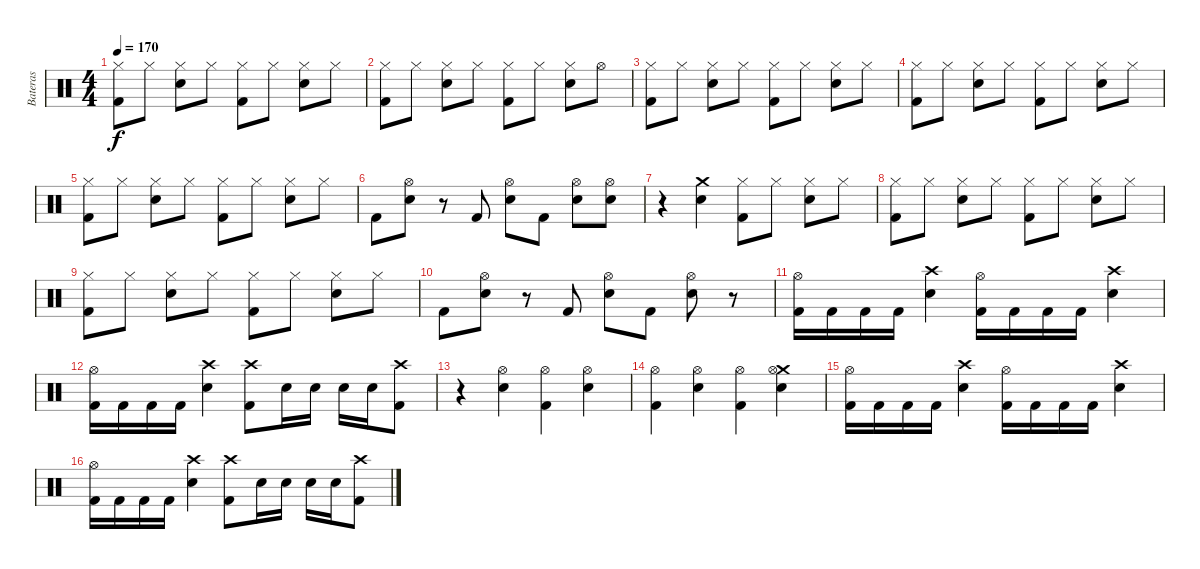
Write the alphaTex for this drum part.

\track ("Bateras" "Bateras") {instrument percussion}
\staff {score}
\articulation defaults
\ts (4 4)
\tempo 170
\clef neutral
\ks c
("Hi-Hat (closed)" "Kick (hit) 2").8{dy f} "Hi-Hat (closed)".8 ("Hi-Hat (closed)" "Snare (hit) 2").8 "Hi-Hat (closed)".8 ("Hi-Hat (closed)" "Kick (hit) 2").8 "Hi-Hat (closed)".8 ("Hi-Hat (closed)" "Snare (hit) 2").8 "Hi-Hat (closed)".8 |
("Hi-Hat (closed)" "Kick (hit) 2").8 "Hi-Hat (closed)".8 ("Hi-Hat (closed)" "Snare (hit) 2").8 "Hi-Hat (closed)".8 ("Hi-Hat (closed)" "Kick (hit) 2").8 "Hi-Hat (closed)".8 ("Hi-Hat (closed)" "Snare (hit) 2").8 "Hi-Hat (open)".8 |
("Hi-Hat (closed)" "Kick (hit) 2").8 "Hi-Hat (closed)".8 ("Hi-Hat (closed)" "Snare (hit) 2").8 "Hi-Hat (closed)".8 ("Hi-Hat (closed)" "Kick (hit) 2").8 "Hi-Hat (closed)".8 ("Hi-Hat (closed)" "Snare (hit) 2").8 "Hi-Hat (closed)".8 |
("Hi-Hat (closed)" "Kick (hit) 2").8 "Hi-Hat (closed)".8 ("Hi-Hat (closed)" "Snare (hit) 2").8 "Hi-Hat (closed)".8 ("Hi-Hat (closed)" "Kick (hit) 2").8 "Hi-Hat (closed)".8 ("Hi-Hat (closed)" "Snare (hit) 2").8 "Hi-Hat (closed)".8 |
("Hi-Hat (closed)" "Kick (hit) 2").8 "Hi-Hat (closed)".8 ("Hi-Hat (closed)" "Snare (hit) 2").8 "Hi-Hat (closed)".8 ("Hi-Hat (closed)" "Kick (hit) 2").8 "Hi-Hat (closed)".8 ("Hi-Hat (closed)" "Snare (hit) 2").8 "Hi-Hat (closed)".8 |
"Kick (hit) 2".8 ("Hi-Hat (open)" "Snare (hit) 2").8 r.8 "Kick (hit) 2".8 ("Hi-Hat (open)" "Snare (hit) 2").8 "Kick (hit) 2".8 ("Hi-Hat (open)" "Snare (hit) 2").8 ("Hi-Hat (open)" "Snare (hit) 2").8 |
r.4 ("Crash medium (hit)" "Snare (hit) 2").4 ("Hi-Hat (closed)" "Kick (hit) 2").8 "Hi-Hat (closed)".8 ("Hi-Hat (closed)" "Snare (hit) 2").8 "Hi-Hat (closed)".8 |
("Hi-Hat (closed)" "Kick (hit) 2").8 "Hi-Hat (closed)".8 ("Hi-Hat (closed)" "Snare (hit) 2").8 "Hi-Hat (closed)".8 ("Hi-Hat (closed)" "Kick (hit) 2").8 "Hi-Hat (closed)".8 ("Hi-Hat (closed)" "Snare (hit) 2").8 "Hi-Hat (closed)".8 |
("Hi-Hat (closed)" "Kick (hit) 2").8 "Hi-Hat (closed)".8 ("Hi-Hat (closed)" "Snare (hit) 2").8 "Hi-Hat (closed)".8 ("Hi-Hat (closed)" "Kick (hit) 2").8 "Hi-Hat (closed)".8 ("Hi-Hat (closed)" "Snare (hit) 2").8 "Hi-Hat (closed)".8 |
"Kick (hit) 2".8 ("Hi-Hat (open)" "Snare (hit) 2").8 r.8 "Kick (hit) 2".8 ("Hi-Hat (open)" "Snare (hit) 2").8 "Kick (hit) 2".8 ("Hi-Hat (open)" "Snare (hit) 2").8 r.8 |
("Hi-Hat (open)" "Kick (hit) 2").16 "Kick (hit) 2".16 "Kick (hit) 2".16 "Kick (hit) 2".16 ("Crash high (hit)" "Snare (hit) 2").4 ("Hi-Hat (open)" "Kick (hit) 2").16 "Kick (hit) 2".16 "Kick (hit) 2".16 "Kick (hit) 2".16 ("Crash high (hit)" "Snare (hit) 2").4 |
("Hi-Hat (open)" "Kick (hit) 2").16 "Kick (hit) 2".16 "Kick (hit) 2".16 "Kick (hit) 2".16 ("Crash high (hit)" "Snare (hit) 2").4 ("Crash high (hit)" "Kick (hit) 2").8 "Snare (hit) 2".16 "Snare (hit) 2".16 "Snare (hit) 2".16 "Snare (hit) 2".16 ("Crash high (hit)" "Kick (hit) 2").8 |
r.4 ("Hi-Hat (open)" "Snare (hit) 2").4 ("Hi-Hat (open)" "Kick (hit) 2").4 ("Hi-Hat (open)" "Snare (hit) 2").4 |
("Hi-Hat (open)" "Kick (hit) 2").4 ("Hi-Hat (open)" "Snare (hit) 2").4 ("Hi-Hat (open)" "Kick (hit) 2").4 ("Crash medium (hit)" "Hi-Hat (open)" "Snare (hit) 2").4 |
("Hi-Hat (open)" "Kick (hit) 2").16 "Kick (hit) 2".16 "Kick (hit) 2".16 "Kick (hit) 2".16 ("Crash high (hit)" "Snare (hit) 2").4 ("Hi-Hat (open)" "Kick (hit) 2").16 "Kick (hit) 2".16 "Kick (hit) 2".16 "Kick (hit) 2".16 ("Crash high (hit)" "Snare (hit) 2").4 |
("Hi-Hat (open)" "Kick (hit) 2").16 "Kick (hit) 2".16 "Kick (hit) 2".16 "Kick (hit) 2".16 ("Crash high (hit)" "Snare (hit) 2").4 ("Crash high (hit)" "Kick (hit) 2").8 "Snare (hit) 2".16 "Snare (hit) 2".16 "Snare (hit) 2".16 "Snare (hit) 2".16 ("Crash high (hit)" "Kick (hit) 2").8
